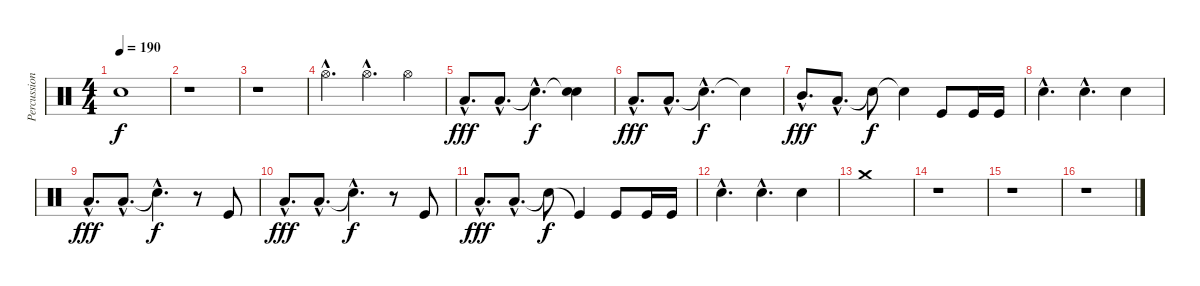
\track ("Percussion" "Percussion") {instrument percussion}
\staff {score}
\articulation defaults
\ts (4 4)
\tempo 190
\clef neutral
\ks c "Snare (hit) 2".1{dy f}
|
r.1 |
r.1 |
"Hi-Hat (open)"{hac}.4{d} "Hi-Hat (open)"{hac}.4{d} "Hi-Hat (open)".4 |
"Low Tom (hit)"{hac}.8{d dy fff} "Low Tom (hit)"{hac}.8{d} "Snare (hit)"{hac t}.4{d dy f} ("Snare (hit)"{t} "Snare (hit)").4 |
"Low Tom (hit)"{hac}.8{d dy fff} "Low Tom (hit)"{hac}.8{d} "Snare (hit)"{hac t}.4{d dy f} "Snare (hit)"{t}.4 |
"Mid Tom (hit)"{hac}.8{d dy fff} "Low Tom (hit)"{hac}.8{d} "Snare (hit)"{t}.8{dy f} "Snare (hit)"{t}.4 "Kick (hit)".8 "Kick (hit)".16 "Kick (hit)".16 |
"Snare (hit) 2"{hac}.4{d} "Snare (hit) 2"{hac}.4{d} "Snare (hit) 2".4 |
"Low Tom (hit)"{hac}.8{d dy fff} "Low Tom (hit)"{hac}.8{d} "Snare (hit)"{hac t}.4{d dy f} r.8 "Kick (hit)".8 |
"Low Tom (hit)"{hac}.8{d dy fff} "Low Tom (hit)"{hac}.8{d} "Snare (hit)"{hac t}.4{d dy f} r.8 "Kick (hit)".8 |
"Low Tom (hit)"{hac}.8{d dy fff} "Low Tom (hit)"{hac}.8{d} "Snare (hit)"{t}.8{dy f} "Kick (hit)"{t}.4 "Kick (hit)".8 "Kick (hit)".16 "Kick (hit)".16 |
"Electric Snare (hit)"{hac}.4{d} "Electric Snare (hit)"{hac}.4{d} "Electric Snare (hit)".4 |
"Crash medium (hit)".1 |
r.1 |
r.1 |
r.1
